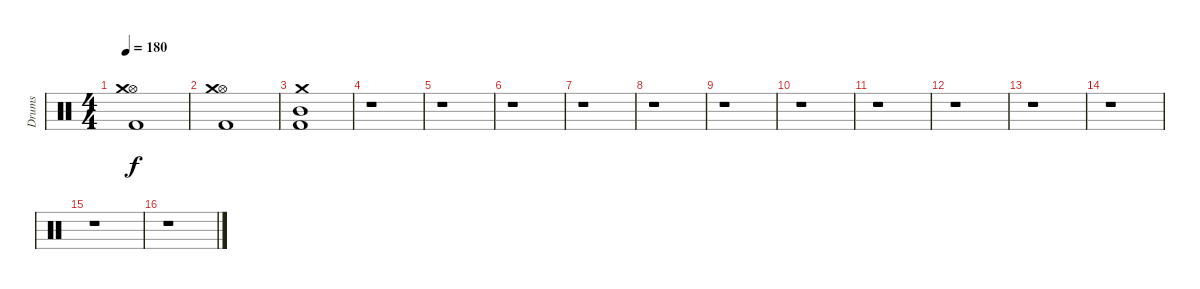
\track ("Drums" "Drums") {instrument percussion}
\staff {score}
\articulation defaults
\ts (4 4)
\tempo 180
\clef neutral
\ks c
("Kick (hit) 2" "Hi-Hat (open)" "Crash medium (hit)").1{dy f} |
("Kick (hit) 2" "Hi-Hat (open)" "Crash medium (hit)").1 |
("Mid Tom (hit)" "Kick (hit) 2" "Crash medium (hit)").1 |
r.1 |
r.1 |
r.1 |
r.1 |
r.1 |
r.1 |
r.1 |
r.1 |
r.1 |
r.1 |
r.1 |
r.1 |
r.1
